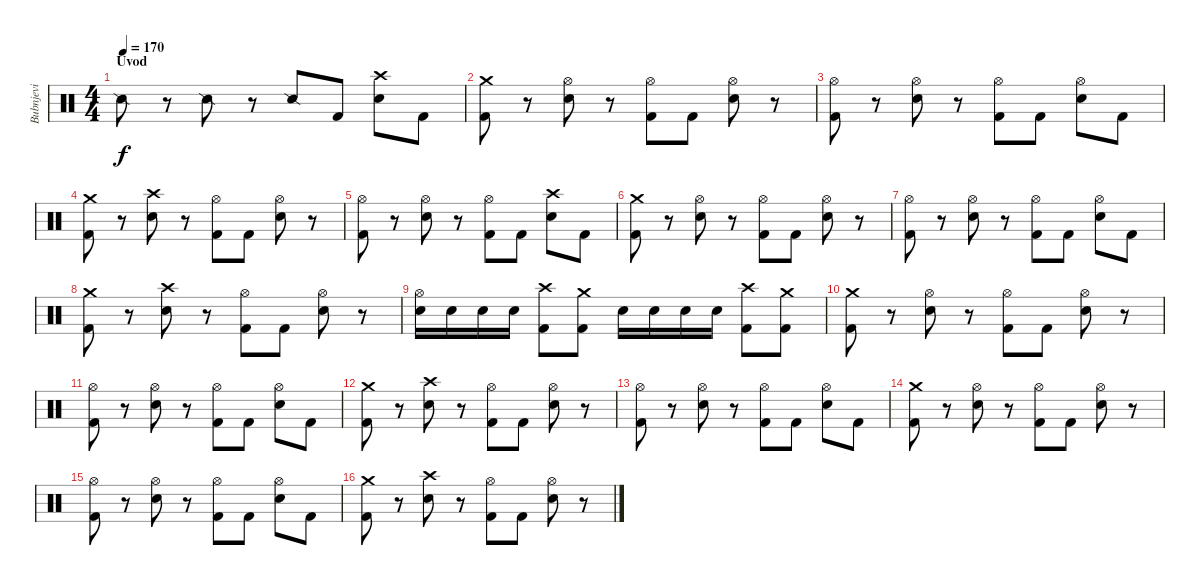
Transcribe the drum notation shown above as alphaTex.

\track ("Bubnjevi" "Bubnjevi") {instrument percussion}
\staff {score}
\articulation defaults
\ts (4 4)
\section ("" "Uvod")
\tempo 170
\clef neutral
\ks c "Snare (side stick) 2".8{dy f}
r.8 "Snare (side stick) 2".8 r.8 "Snare (side stick) 2".8 "Kick (hit) 2".8 ("Crash high (hit)" "Electric Snare (hit)").8 "Kick (hit) 2".8 |
("Crash medium (hit)" "Kick (hit) 2").8 r.8 ("Hi-Hat (open)" "Electric Snare (hit)").8 r.8 ("Hi-Hat (open)" "Kick (hit) 2").8 "Kick (hit) 2".8 ("Hi-Hat (open)" "Electric Snare (hit)").8 r.8 |
("Hi-Hat (open)" "Kick (hit) 2").8 r.8 ("Hi-Hat (open)" "Electric Snare (hit)").8 r.8 ("Hi-Hat (open)" "Kick (hit) 2").8 "Kick (hit) 2".8 ("Hi-Hat (open)" "Electric Snare (hit)").8 "Kick (hit) 2".8 |
("Crash medium (hit)" "Kick (hit) 2").8 r.8 ("Crash high (hit)" "Electric Snare (hit)").8 r.8 ("Hi-Hat (open)" "Kick (hit) 2").8 "Kick (hit) 2".8 ("Hi-Hat (open)" "Electric Snare (hit)").8 r.8 |
("Hi-Hat (open)" "Kick (hit) 2").8 r.8 ("Hi-Hat (open)" "Electric Snare (hit)").8 r.8 ("Hi-Hat (open)" "Kick (hit) 2").8 "Kick (hit) 2".8 ("Crash high (hit)" "Electric Snare (hit)").8 "Kick (hit) 2".8 |
("Crash medium (hit)" "Kick (hit) 2").8 r.8 ("Hi-Hat (open)" "Electric Snare (hit)").8 r.8 ("Hi-Hat (open)" "Kick (hit) 2").8 "Kick (hit) 2".8 ("Hi-Hat (open)" "Electric Snare (hit)").8 r.8 |
("Hi-Hat (open)" "Kick (hit) 2").8 r.8 ("Hi-Hat (open)" "Electric Snare (hit)").8 r.8 ("Hi-Hat (open)" "Kick (hit) 2").8 "Kick (hit) 2".8 ("Hi-Hat (open)" "Electric Snare (hit)").8 "Kick (hit) 2".8 |
("Crash medium (hit)" "Kick (hit) 2").8 r.8 ("Crash high (hit)" "Electric Snare (hit)").8 r.8 ("Hi-Hat (open)" "Kick (hit) 2").8 "Kick (hit) 2".8 ("Hi-Hat (open)" "Electric Snare (hit)").8 r.8 |
("Hi-Hat (open)" "Electric Snare (hit)").16 "Electric Snare (hit)".16 "Electric Snare (hit)".16 "Electric Snare (hit)".16 ("Crash high (hit)" "Kick (hit) 2").8 ("Crash medium (hit)" "Kick (hit) 2").8 "Electric Snare (hit)".16 "Electric Snare (hit)".16 "Electric Snare (hit)".16 "Electric Snare (hit)".16 ("Crash high (hit)" "Kick (hit) 2").8 ("Crash medium (hit)" "Kick (hit) 2").8 |
("Crash medium (hit)" "Kick (hit) 2").8 r.8 ("Hi-Hat (open)" "Electric Snare (hit)").8 r.8 ("Hi-Hat (open)" "Kick (hit) 2").8 "Kick (hit) 2".8 ("Hi-Hat (open)" "Electric Snare (hit)").8 r.8 |
("Hi-Hat (open)" "Kick (hit) 2").8 r.8 ("Hi-Hat (open)" "Electric Snare (hit)").8 r.8 ("Hi-Hat (open)" "Kick (hit) 2").8 "Kick (hit) 2".8 ("Hi-Hat (open)" "Electric Snare (hit)").8 "Kick (hit) 2".8 |
("Crash medium (hit)" "Kick (hit) 2").8 r.8 ("Crash high (hit)" "Electric Snare (hit)").8 r.8 ("Hi-Hat (open)" "Kick (hit) 2").8 "Kick (hit) 2".8 ("Hi-Hat (open)" "Electric Snare (hit)").8 r.8 |
("Hi-Hat (open)" "Kick (hit) 2").8 r.8 ("Hi-Hat (open)" "Electric Snare (hit)").8 r.8 ("Hi-Hat (open)" "Kick (hit) 2").8 "Kick (hit) 2".8 ("Hi-Hat (open)" "Electric Snare (hit)").8 "Kick (hit) 2".8 |
("Crash medium (hit)" "Kick (hit) 2").8 r.8 ("Hi-Hat (open)" "Electric Snare (hit)").8 r.8 ("Hi-Hat (open)" "Kick (hit) 2").8 "Kick (hit) 2".8 ("Hi-Hat (open)" "Electric Snare (hit)").8 r.8 |
("Hi-Hat (open)" "Kick (hit) 2").8 r.8 ("Hi-Hat (open)" "Electric Snare (hit)").8 r.8 ("Hi-Hat (open)" "Kick (hit) 2").8 "Kick (hit) 2".8 ("Hi-Hat (open)" "Electric Snare (hit)").8 "Kick (hit) 2".8 |
("Crash medium (hit)" "Kick (hit) 2").8 r.8 ("Crash high (hit)" "Electric Snare (hit)").8 r.8 ("Hi-Hat (open)" "Kick (hit) 2").8 "Kick (hit) 2".8 ("Hi-Hat (open)" "Electric Snare (hit)").8 r.8
